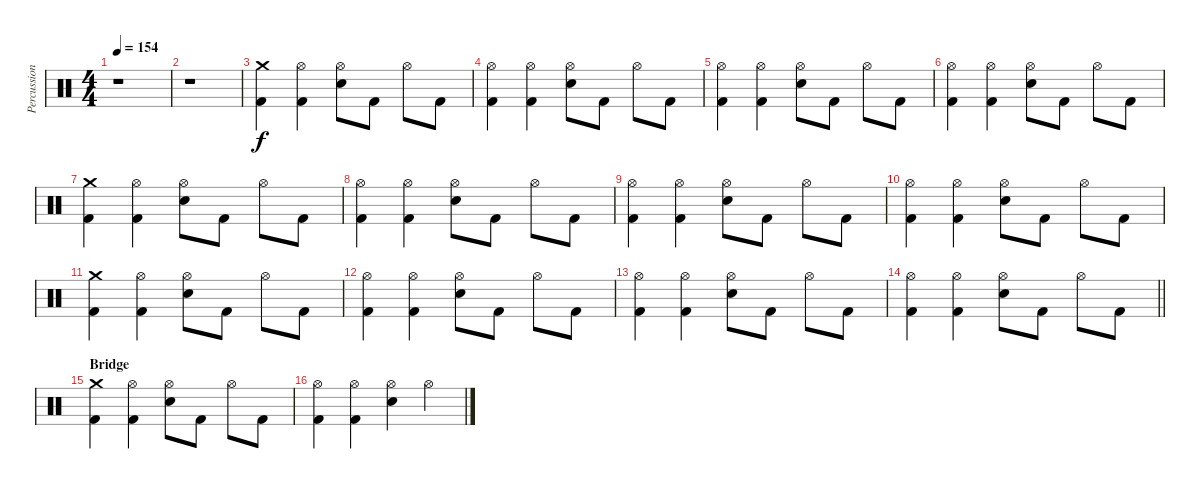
\track ("Percussion" "Percussion") {instrument percussion}
\staff {score}
\articulation defaults
\ts (4 4)
\tempo 154
\clef neutral
\ks c
r.1{dy f} |
r.1 |
("Crash medium (hit)" "Kick (hit) 2").4 ("Hi-Hat (open)" "Kick (hit) 2").4 ("Electric Snare (hit)" "Hi-Hat (open)").8 "Kick (hit) 2".8 "Hi-Hat (open)".8 "Kick (hit) 2".8 |
("Hi-Hat (open)" "Kick (hit) 2").4 ("Hi-Hat (open)" "Kick (hit) 2").4 ("Electric Snare (hit)" "Hi-Hat (open)").8 "Kick (hit) 2".8 "Hi-Hat (open)".8 "Kick (hit) 2".8 |
("Hi-Hat (open)" "Kick (hit) 2").4 ("Hi-Hat (open)" "Kick (hit) 2").4 ("Electric Snare (hit)" "Hi-Hat (open)").8 "Kick (hit) 2".8 "Hi-Hat (open)".8 "Kick (hit) 2".8 |
("Hi-Hat (open)" "Kick (hit) 2").4 ("Hi-Hat (open)" "Kick (hit) 2").4 ("Electric Snare (hit)" "Hi-Hat (open)").8 "Kick (hit) 2".8 "Hi-Hat (open)".8 "Kick (hit) 2".8 |
("Crash medium (hit)" "Kick (hit) 2").4 ("Hi-Hat (open)" "Kick (hit) 2").4 ("Electric Snare (hit)" "Hi-Hat (open)").8 "Kick (hit) 2".8 "Hi-Hat (open)".8 "Kick (hit) 2".8 |
("Hi-Hat (open)" "Kick (hit) 2").4 ("Hi-Hat (open)" "Kick (hit) 2").4 ("Electric Snare (hit)" "Hi-Hat (open)").8 "Kick (hit) 2".8 "Hi-Hat (open)".8 "Kick (hit) 2".8 |
("Hi-Hat (open)" "Kick (hit) 2").4 ("Hi-Hat (open)" "Kick (hit) 2").4 ("Electric Snare (hit)" "Hi-Hat (open)").8 "Kick (hit) 2".8 "Hi-Hat (open)".8 "Kick (hit) 2".8 |
("Hi-Hat (open)" "Kick (hit) 2").4 ("Hi-Hat (open)" "Kick (hit) 2").4 ("Electric Snare (hit)" "Hi-Hat (open)").8 "Kick (hit) 2".8 "Hi-Hat (open)".8 "Kick (hit) 2".8 |
("Crash medium (hit)" "Kick (hit) 2").4 ("Hi-Hat (open)" "Kick (hit) 2").4 ("Electric Snare (hit)" "Hi-Hat (open)").8 "Kick (hit) 2".8 "Hi-Hat (open)".8 "Kick (hit) 2".8 |
("Hi-Hat (open)" "Kick (hit) 2").4 ("Hi-Hat (open)" "Kick (hit) 2").4 ("Electric Snare (hit)" "Hi-Hat (open)").8 "Kick (hit) 2".8 "Hi-Hat (open)".8 "Kick (hit) 2".8 |
("Hi-Hat (open)" "Kick (hit) 2").4 ("Hi-Hat (open)" "Kick (hit) 2").4 ("Electric Snare (hit)" "Hi-Hat (open)").8 "Kick (hit) 2".8 "Hi-Hat (open)".8 "Kick (hit) 2".8 |
\barLineRight lightlight
("Hi-Hat (open)" "Kick (hit) 2").4 ("Hi-Hat (open)" "Kick (hit) 2").4 ("Electric Snare (hit)" "Hi-Hat (open)").8 "Kick (hit) 2".8 "Hi-Hat (open)".8 "Kick (hit) 2".8 |
\section ("" "Bridge")
("Crash medium (hit)" "Kick (hit) 2").4 ("Hi-Hat (open)" "Kick (hit) 2").4 ("Electric Snare (hit)" "Hi-Hat (open)").8 "Kick (hit) 2".8 "Hi-Hat (open)".8 "Kick (hit) 2".8 |
("Hi-Hat (open)" "Kick (hit) 2").4 ("Hi-Hat (open)" "Kick (hit) 2").4 ("Electric Snare (hit)" "Hi-Hat (open)").4 "Hi-Hat (open)".4
